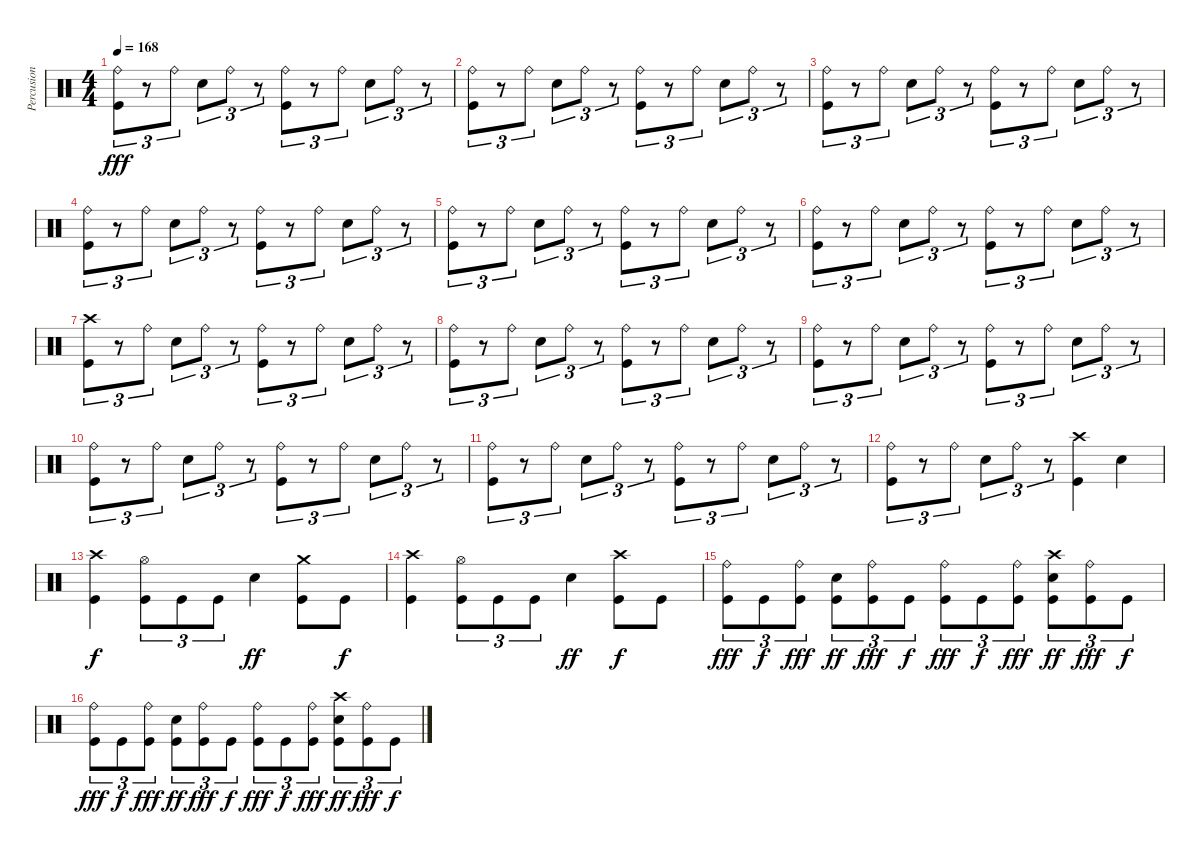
\track ("Percusion" "Percusion") {instrument percussion}
\staff {score}
\articulation defaults
\ts (4 4)
\tempo 168
\clef neutral
\ks c
("Ride (bell)" "Kick (hit)").8{tu (3 2) dy fff} r.8{tu (3 2)} "Ride (bell)".8{tu (3 2)} "Snare (hit) 2".8{tu (3 2)} "Ride (bell)".8{tu (3 2)} r.8{tu (3 2)} ("Ride (bell)" "Kick (hit)").8{tu (3 2)} r.8{tu (3 2)} "Ride (bell)".8{tu (3 2)} "Snare (hit) 2".8{tu (3 2)} "Ride (bell)".8{tu (3 2)} r.8{tu (3 2)} |
("Ride (bell)" "Kick (hit)").8{tu (3 2)} r.8{tu (3 2)} "Ride (bell)".8{tu (3 2)} "Snare (hit) 2".8{tu (3 2)} "Ride (bell)".8{tu (3 2)} r.8{tu (3 2)} ("Ride (bell)" "Kick (hit)").8{tu (3 2)} r.8{tu (3 2)} "Ride (bell)".8{tu (3 2)} "Snare (hit) 2".8{tu (3 2)} "Ride (bell)".8{tu (3 2)} r.8{tu (3 2)} |
("Ride (bell)" "Kick (hit)").8{tu (3 2)} r.8{tu (3 2)} "Ride (bell)".8{tu (3 2)} "Snare (hit) 2".8{tu (3 2)} "Ride (bell)".8{tu (3 2)} r.8{tu (3 2)} ("Ride (bell)" "Kick (hit)").8{tu (3 2)} r.8{tu (3 2)} "Ride (bell)".8{tu (3 2)} "Snare (hit) 2".8{tu (3 2)} "Ride (bell)".8{tu (3 2)} r.8{tu (3 2)} |
("Ride (bell)" "Kick (hit)").8{tu (3 2)} r.8{tu (3 2)} "Ride (bell)".8{tu (3 2)} "Snare (hit) 2".8{tu (3 2)} "Ride (bell)".8{tu (3 2)} r.8{tu (3 2)} ("Ride (bell)" "Kick (hit)").8{tu (3 2)} r.8{tu (3 2)} "Ride (bell)".8{tu (3 2)} "Snare (hit) 2".8{tu (3 2)} "Ride (bell)".8{tu (3 2)} r.8{tu (3 2)} |
("Ride (bell)" "Kick (hit)").8{tu (3 2)} r.8{tu (3 2)} "Ride (bell)".8{tu (3 2)} "Snare (hit) 2".8{tu (3 2)} "Ride (bell)".8{tu (3 2)} r.8{tu (3 2)} ("Ride (bell)" "Kick (hit)").8{tu (3 2)} r.8{tu (3 2)} "Ride (bell)".8{tu (3 2)} "Snare (hit) 2".8{tu (3 2)} "Ride (bell)".8{tu (3 2)} r.8{tu (3 2)} |
("Ride (bell)" "Kick (hit)").8{tu (3 2)} r.8{tu (3 2)} "Ride (bell)".8{tu (3 2)} "Snare (hit) 2".8{tu (3 2)} "Ride (bell)".8{tu (3 2)} r.8{tu (3 2)} ("Ride (bell)" "Kick (hit)").8{tu (3 2)} r.8{tu (3 2)} "Ride (bell)".8{tu (3 2)} "Snare (hit) 2".8{tu (3 2)} "Ride (bell)".8{tu (3 2)} r.8{tu (3 2)} |
("Crash high (hit)" "Kick (hit)").8{tu (3 2)} r.8{tu (3 2)} "Ride (bell)".8{tu (3 2)} "Snare (hit) 2".8{tu (3 2)} "Ride (bell)".8{tu (3 2)} r.8{tu (3 2)} ("Ride (bell)" "Kick (hit)").8{tu (3 2)} r.8{tu (3 2)} "Ride (bell)".8{tu (3 2)} "Snare (hit) 2".8{tu (3 2)} "Ride (bell)".8{tu (3 2)} r.8{tu (3 2)} |
("Ride (bell)" "Kick (hit)").8{tu (3 2)} r.8{tu (3 2)} "Ride (bell)".8{tu (3 2)} "Snare (hit) 2".8{tu (3 2)} "Ride (bell)".8{tu (3 2)} r.8{tu (3 2)} ("Ride (bell)" "Kick (hit)").8{tu (3 2)} r.8{tu (3 2)} "Ride (bell)".8{tu (3 2)} "Snare (hit) 2".8{tu (3 2)} "Ride (bell)".8{tu (3 2)} r.8{tu (3 2)} |
("Ride (bell)" "Kick (hit)").8{tu (3 2)} r.8{tu (3 2)} "Ride (bell)".8{tu (3 2)} "Snare (hit) 2".8{tu (3 2)} "Ride (bell)".8{tu (3 2)} r.8{tu (3 2)} ("Ride (bell)" "Kick (hit)").8{tu (3 2)} r.8{tu (3 2)} "Ride (bell)".8{tu (3 2)} "Snare (hit) 2".8{tu (3 2)} "Ride (bell)".8{tu (3 2)} r.8{tu (3 2)} |
("Ride (bell)" "Kick (hit)").8{tu (3 2)} r.8{tu (3 2)} "Ride (bell)".8{tu (3 2)} "Snare (hit) 2".8{tu (3 2)} "Ride (bell)".8{tu (3 2)} r.8{tu (3 2)} ("Ride (bell)" "Kick (hit)").8{tu (3 2)} r.8{tu (3 2)} "Ride (bell)".8{tu (3 2)} "Snare (hit) 2".8{tu (3 2)} "Ride (bell)".8{tu (3 2)} r.8{tu (3 2)} |
("Ride (bell)" "Kick (hit)").8{tu (3 2)} r.8{tu (3 2)} "Ride (bell)".8{tu (3 2)} "Snare (hit) 2".8{tu (3 2)} "Ride (bell)".8{tu (3 2)} r.8{tu (3 2)} ("Ride (bell)" "Kick (hit)").8{tu (3 2)} r.8{tu (3 2)} "Ride (bell)".8{tu (3 2)} "Snare (hit) 2".8{tu (3 2)} "Ride (bell)".8{tu (3 2)} r.8{tu (3 2)} |
("Ride (bell)" "Kick (hit)").8{tu (3 2)} r.8{tu (3 2)} "Ride (bell)".8{tu (3 2)} "Snare (hit) 2".8{tu (3 2)} "Ride (bell)".8{tu (3 2)} r.8{tu (3 2)} ("Crash high (hit)" "Kick (hit)").4 "Snare (hit) 2".4 |
("Crash high (hit)" "Kick (hit)").4{dy f} ("Hi-Hat (open)" "Kick (hit)").8{tu (3 2)} "Kick (hit)".8{tu (3 2)} "Kick (hit)".8{tu (3 2)} "Snare (hit) 2".4{dy ff} ("Crash medium (hit)" "Kick (hit)").8 "Kick (hit)".8{dy f} |
("Crash high (hit)" "Kick (hit)").4 ("Hi-Hat (open)" "Kick (hit)").8{tu (3 2)} "Kick (hit)".8{tu (3 2)} "Kick (hit)".8{tu (3 2)} "Snare (hit) 2".4{dy ff} ("Crash high (hit)" "Kick (hit)").8{dy f} "Kick (hit)".8 |
("Ride (bell)" "Kick (hit)").8{tu (3 2) dy fff} "Kick (hit)".8{tu (3 2) dy f} ("Ride (bell)" "Kick (hit)").8{tu (3 2) dy fff} ("Snare (hit) 2" "Kick (hit)").8{tu (3 2) dy ff} ("Ride (bell)" "Kick (hit)").8{tu (3 2) dy fff} "Kick (hit)".8{tu (3 2) dy f} ("Ride (bell)" "Kick (hit)").8{tu (3 2) dy fff} "Kick (hit)".8{tu (3 2) dy f} ("Ride (bell)" "Kick (hit)").8{tu (3 2) dy fff} ("Crash high (hit)" "Snare (hit) 2" "Kick (hit)").8{tu (3 2) dy ff} ("Ride (bell)" "Kick (hit)").8{tu (3 2) dy fff} "Kick (hit)".8{tu (3 2) dy f} |
("Ride (bell)" "Kick (hit)").8{tu (3 2) dy fff} "Kick (hit)".8{tu (3 2) dy f} ("Ride (bell)" "Kick (hit)").8{tu (3 2) dy fff} ("Snare (hit) 2" "Kick (hit)").8{tu (3 2) dy ff} ("Ride (bell)" "Kick (hit)").8{tu (3 2) dy fff} "Kick (hit)".8{tu (3 2) dy f} ("Ride (bell)" "Kick (hit)").8{tu (3 2) dy fff} "Kick (hit)".8{tu (3 2) dy f} ("Ride (bell)" "Kick (hit)").8{tu (3 2) dy fff} ("Crash high (hit)" "Snare (hit) 2" "Kick (hit)").8{tu (3 2) dy ff} ("Ride (bell)" "Kick (hit)").8{tu (3 2) dy fff} "Kick (hit)".8{tu (3 2) dy f}
